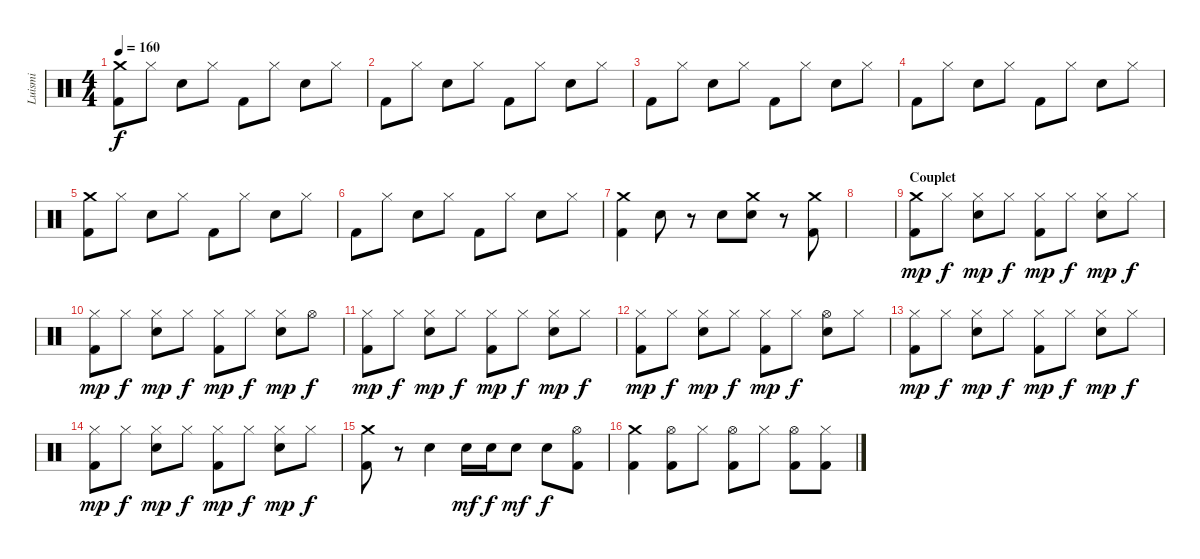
\track ("Luismi" "Luismi") {instrument percussion}
\staff {score}
\articulation defaults
\ts (4 4)
\tempo 160
\clef neutral
\ks c
("Crash medium (hit)" "Kick (hit) 2").8{dy f} "Hi-Hat (closed)".8 "Snare (hit) 2".8 "Hi-Hat (closed)".8 "Kick (hit) 2".8 "Hi-Hat (closed)".8 "Snare (hit) 2".8 "Hi-Hat (closed)".8 |
"Kick (hit) 2".8 "Hi-Hat (closed)".8 "Snare (hit) 2".8 "Hi-Hat (closed)".8 "Kick (hit) 2".8 "Hi-Hat (closed)".8 "Snare (hit) 2".8 "Hi-Hat (closed)".8 |
"Kick (hit) 2".8 "Hi-Hat (closed)".8 "Snare (hit) 2".8 "Hi-Hat (closed)".8 "Kick (hit) 2".8 "Hi-Hat (closed)".8 "Snare (hit) 2".8 "Hi-Hat (closed)".8 |
"Kick (hit) 2".8 "Hi-Hat (closed)".8 "Snare (hit) 2".8 "Hi-Hat (closed)".8 "Kick (hit) 2".8 "Hi-Hat (closed)".8 "Snare (hit) 2".8 "Hi-Hat (closed)".8 |
("Crash medium (hit)" "Kick (hit) 2").8 "Hi-Hat (closed)".8 "Snare (hit) 2".8 "Hi-Hat (closed)".8 "Kick (hit) 2".8 "Hi-Hat (closed)".8 "Snare (hit) 2".8 "Hi-Hat (closed)".8 |
"Kick (hit) 2".8 "Hi-Hat (closed)".8 "Snare (hit) 2".8 "Hi-Hat (closed)".8 "Kick (hit) 2".8 "Hi-Hat (closed)".8 "Snare (hit) 2".8 "Hi-Hat (closed)".8 |
("Crash medium (hit)" "Kick (hit) 2").4 "Snare (hit) 2".8 r.8 "Snare (hit) 2".8 ("Crash medium (hit)" "Snare (hit) 2").8 r.8 ("Crash medium (hit)" "Kick (hit) 2").8 |
|
\section ("" "Couplet")
("Crash medium (hit)" "Kick (hit) 2").8{dy mp} "Hi-Hat (closed)".8{dy f} ("Hi-Hat (closed)" "Snare (hit) 2").8{dy mp} "Hi-Hat (closed)".8{dy f} ("Hi-Hat (closed)" "Kick (hit) 2").8{dy mp} "Hi-Hat (closed)".8{dy f} ("Hi-Hat (closed)" "Snare (hit) 2").8{dy mp} "Hi-Hat (closed)".8{dy f} |
("Hi-Hat (closed)" "Kick (hit) 2").8{dy mp} "Hi-Hat (closed)".8{dy f} ("Hi-Hat (closed)" "Snare (hit) 2").8{dy mp} "Hi-Hat (closed)".8{dy f} ("Hi-Hat (closed)" "Kick (hit) 2").8{dy mp} "Hi-Hat (closed)".8{dy f} ("Hi-Hat (closed)" "Snare (hit) 2").8{dy mp} "Hi-Hat (open)".8{dy f} |
("Hi-Hat (closed)" "Kick (hit) 2").8{dy mp} "Hi-Hat (closed)".8{dy f} ("Hi-Hat (closed)" "Snare (hit) 2").8{dy mp} "Hi-Hat (closed)".8{dy f} ("Hi-Hat (closed)" "Kick (hit) 2").8{dy mp} "Hi-Hat (closed)".8{dy f} ("Hi-Hat (closed)" "Snare (hit) 2").8{dy mp} "Hi-Hat (closed)".8{dy f} |
("Hi-Hat (closed)" "Kick (hit) 2").8{dy mp} "Hi-Hat (closed)".8{dy f} ("Hi-Hat (closed)" "Snare (hit) 2").8{dy mp} "Hi-Hat (closed)".8{dy f} ("Hi-Hat (closed)" "Kick (hit) 2").8{dy mp} "Hi-Hat (closed)".8{dy f} ("Hi-Hat (open)" "Snare (hit) 2").8 "Hi-Hat (closed)".8 |
("Hi-Hat (closed)" "Kick (hit) 2").8{dy mp} "Hi-Hat (closed)".8{dy f} ("Hi-Hat (closed)" "Snare (hit) 2").8{dy mp} "Hi-Hat (closed)".8{dy f} ("Hi-Hat (closed)" "Kick (hit) 2").8{dy mp} "Hi-Hat (closed)".8{dy f} ("Hi-Hat (closed)" "Snare (hit) 2").8{dy mp} "Hi-Hat (closed)".8{dy f} |
("Hi-Hat (closed)" "Kick (hit) 2").8{dy mp} "Hi-Hat (closed)".8{dy f} ("Hi-Hat (closed)" "Snare (hit) 2").8{dy mp} "Hi-Hat (closed)".8{dy f} ("Hi-Hat (closed)" "Kick (hit) 2").8{dy mp} "Hi-Hat (closed)".8{dy f} ("Hi-Hat (closed)" "Snare (hit) 2").8{dy mp} "Hi-Hat (closed)".8{dy f} |
("Crash medium (hit)" "Kick (hit) 2").8 r.8 "Snare (hit) 2".4 "Snare (hit) 2".16{dy mf} "Snare (hit) 2".16{dy f} "Snare (hit) 2".8{dy mf} "Snare (hit) 2".8{dy f} ("Hi-Hat (open)" "Kick (hit) 2").8 |
("Crash medium (hit)" "Kick (hit) 2").4 ("Hi-Hat (open)" "Kick (hit) 2").8 "Hi-Hat (closed)".8 ("Hi-Hat (open)" "Kick (hit) 2").8 "Hi-Hat (closed)".8 ("Hi-Hat (open)" "Kick (hit) 2").8 ("Hi-Hat (closed)" "Kick (hit) 2").8
